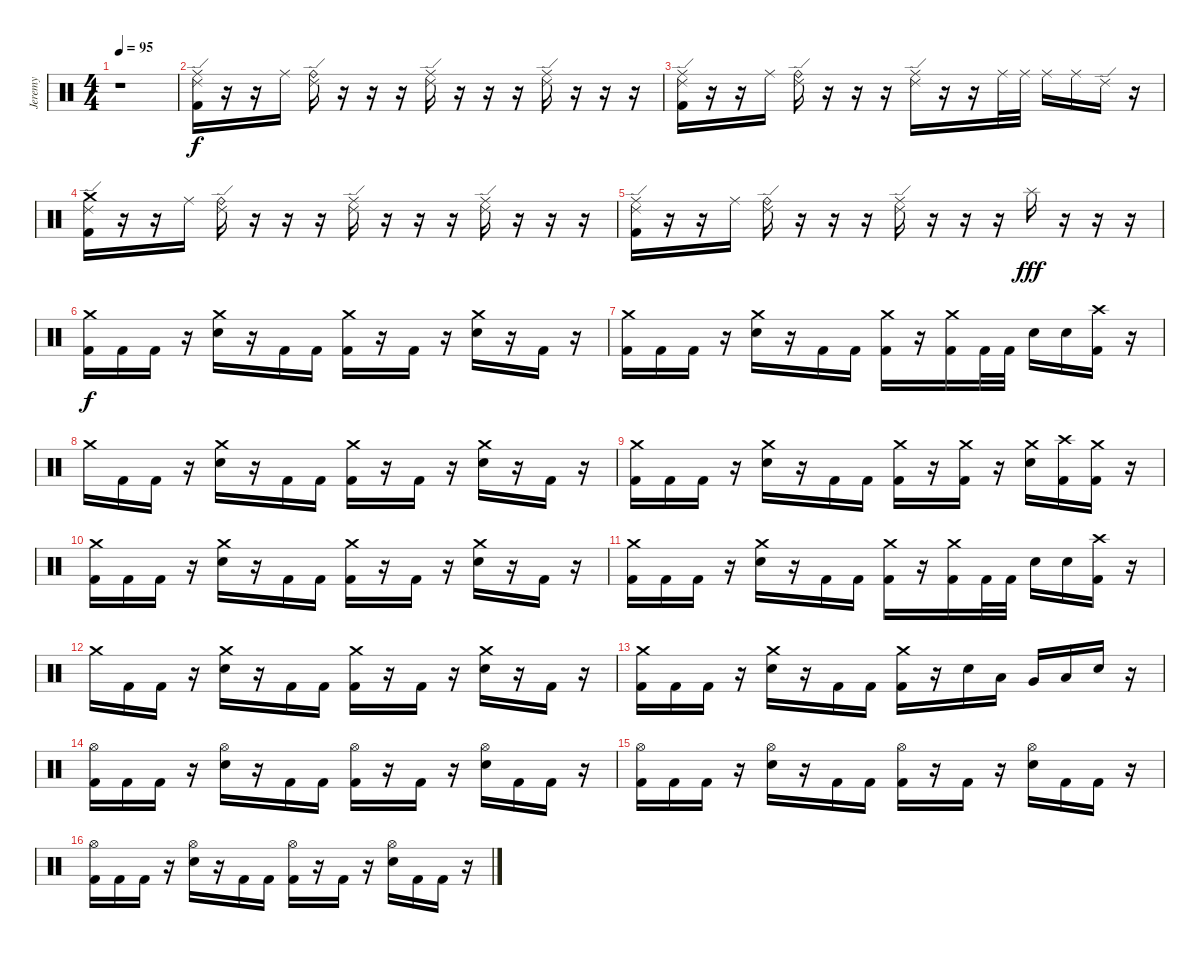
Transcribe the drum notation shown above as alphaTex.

\track ("Jeremy" "Jeremy") {instrument percussion}
\staff {score}
\articulation defaults
\ts (4 4)
\tempo 95
\clef neutral
\ks c
r.1{dy f} |
("Ride (middle)" "Ride (edge) 2" "Kick (hit) 2").16 r.16 r.16 "Ride (middle)".16 ("Ride (bell)" "Ride (edge) 2").16 r.16 r.16 r.16 ("Ride (middle)" "Ride (edge) 2").16 r.16 r.16 r.16 ("Ride (middle)" "Ride (edge) 2").16 r.16 r.16 r.16 |
("Ride (middle)" "Ride (edge) 2" "Kick (hit) 2").16 r.16 r.16 "Ride (middle)".16 ("Ride (bell)" "Ride (edge) 2").16 r.16 r.16 r.16 ("Ride (middle)" "Ride (edge) 2").16 r.16 r.16 "Ride (middle)".32 "Ride (middle)".32 "Ride (middle)".16 "Ride (middle)".16 "Ride (edge) 2".16 r.16 |
("Crash medium (hit)" "Ride (edge) 2" "Kick (hit) 2").16 r.16 r.16 "Ride (middle)".16 ("Ride (bell)" "Ride (edge) 2").16 r.16 r.16 r.16 ("Ride (middle)" "Ride (edge) 2").16 r.16 r.16 r.16 ("Ride (middle)" "Ride (edge) 2").16 r.16 r.16 r.16 |
("Ride (middle)" "Ride (edge) 2" "Kick (hit) 2").16 r.16 r.16 "Ride (middle)".16 ("Ride (bell)" "Ride (edge) 2").16 r.16 r.16 r.16 ("Ride (middle)" "Ride (edge) 2").16 r.16 r.16 r.16 "Splash (hit)".16{dy fff} r.16 r.16 r.16 |
("Crash medium (hit)" "Kick (hit) 2").16{dy f} "Kick (hit) 2".16 "Kick (hit) 2".16 r.16 ("Crash medium (hit)" "Electric Snare (hit)").16 r.16 "Kick (hit) 2".16 "Kick (hit) 2".16 ("Crash medium (hit)" "Kick (hit) 2").16 r.16 "Kick (hit) 2".16 r.16 ("Crash medium (hit)" "Electric Snare (hit)").16 r.16 "Kick (hit) 2".16 r.16 |
("Crash medium (hit)" "Kick (hit) 2").16 "Kick (hit) 2".16 "Kick (hit) 2".16 r.16 ("Crash medium (hit)" "Electric Snare (hit)").16 r.16 "Kick (hit) 2".16 "Kick (hit) 2".16 ("Crash medium (hit)" "Kick (hit) 2").16 r.16 ("Crash medium (hit)" "Kick (hit) 2").16 "Kick (hit) 2".32 "Kick (hit) 2".32 "Electric Snare (hit)".16 "Electric Snare (hit)".16 ("Crash high (hit)" "Kick (hit) 2").16 r.16 |
"Crash medium (hit)".16 "Kick (hit) 2".16 "Kick (hit) 2".16 r.16 ("Crash medium (hit)" "Electric Snare (hit)").16 r.16 "Kick (hit) 2".16 "Kick (hit) 2".16 ("Crash medium (hit)" "Kick (hit) 2").16 r.16 "Kick (hit) 2".16 r.16 ("Crash medium (hit)" "Electric Snare (hit)").16 r.16 "Kick (hit) 2".16 r.16 |
("Crash medium (hit)" "Kick (hit) 2").16 "Kick (hit) 2".16 "Kick (hit) 2".16 r.16 ("Crash medium (hit)" "Electric Snare (hit)").16 r.16 "Kick (hit) 2".16 "Kick (hit) 2".16 ("Crash medium (hit)" "Kick (hit) 2").16 r.16 ("Crash medium (hit)" "Kick (hit) 2").16 r.16 ("Crash medium (hit)" "Electric Snare (hit)").16 ("Crash high (hit)" "Kick (hit) 2").16 ("Crash medium (hit)" "Kick (hit) 2").16 r.16 |
("Crash medium (hit)" "Kick (hit) 2").16 "Kick (hit) 2".16 "Kick (hit) 2".16 r.16 ("Crash medium (hit)" "Electric Snare (hit)").16 r.16 "Kick (hit) 2".16 "Kick (hit) 2".16 ("Crash medium (hit)" "Kick (hit) 2").16 r.16 "Kick (hit) 2".16 r.16 ("Crash medium (hit)" "Electric Snare (hit)").16 r.16 "Kick (hit) 2".16 r.16 |
("Crash medium (hit)" "Kick (hit) 2").16 "Kick (hit) 2".16 "Kick (hit) 2".16 r.16 ("Crash medium (hit)" "Electric Snare (hit)").16 r.16 "Kick (hit) 2".16 "Kick (hit) 2".16 ("Crash medium (hit)" "Kick (hit) 2").16 r.16 ("Crash medium (hit)" "Kick (hit) 2").16 "Kick (hit) 2".32 "Kick (hit) 2".32 "Electric Snare (hit)".16 "Electric Snare (hit)".16 ("Crash high (hit)" "Kick (hit) 2").16 r.16 |
"Crash medium (hit)".16 "Kick (hit) 2".16 "Kick (hit) 2".16 r.16 ("Crash medium (hit)" "Electric Snare (hit)").16 r.16 "Kick (hit) 2".16 "Kick (hit) 2".16 ("Crash medium (hit)" "Kick (hit) 2").16 r.16 "Kick (hit) 2".16 r.16 ("Crash medium (hit)" "Electric Snare (hit)").16 r.16 "Kick (hit) 2".16 r.16 |
("Crash medium (hit)" "Kick (hit) 2").16 "Kick (hit) 2".16 "Kick (hit) 2".16 r.16 ("Crash medium (hit)" "Electric Snare (hit)").16 r.16 "Kick (hit) 2".16 "Kick (hit) 2".16 ("Crash medium (hit)" "Kick (hit) 2").16 r.16 "Electric Snare (hit)".16 "Low Tom (hit)".16 "Very Low Tom (hit)".16 "Low Floor Tom (hit)".16 "Electric Snare (hit)".16 r.16 |
("Hi-Hat (open)" "Kick (hit) 2").16 "Kick (hit) 2".16 "Kick (hit) 2".16 r.16 ("Hi-Hat (open)" "Electric Snare (hit)").16 r.16 "Kick (hit) 2".16 "Kick (hit) 2".16 ("Hi-Hat (open)" "Kick (hit) 2").16 r.16 "Kick (hit) 2".16 r.16 ("Hi-Hat (open)" "Electric Snare (hit)").16 "Kick (hit) 2".16 "Kick (hit) 2".16 r.16 |
("Hi-Hat (open)" "Kick (hit) 2").16 "Kick (hit) 2".16 "Kick (hit) 2".16 r.16 ("Hi-Hat (open)" "Electric Snare (hit)").16 r.16 "Kick (hit) 2".16 "Kick (hit) 2".16 ("Hi-Hat (open)" "Kick (hit) 2").16 r.16 "Kick (hit) 2".16 r.16 ("Hi-Hat (open)" "Electric Snare (hit)").16 "Kick (hit) 2".16 "Kick (hit) 2".16 r.16 |
("Hi-Hat (open)" "Kick (hit) 2").16 "Kick (hit) 2".16 "Kick (hit) 2".16 r.16 ("Hi-Hat (open)" "Electric Snare (hit)").16 r.16 "Kick (hit) 2".16 "Kick (hit) 2".16 ("Hi-Hat (open)" "Kick (hit) 2").16 r.16 "Kick (hit) 2".16 r.16 ("Hi-Hat (open)" "Electric Snare (hit)").16 "Kick (hit) 2".16 "Kick (hit) 2".16 r.16
